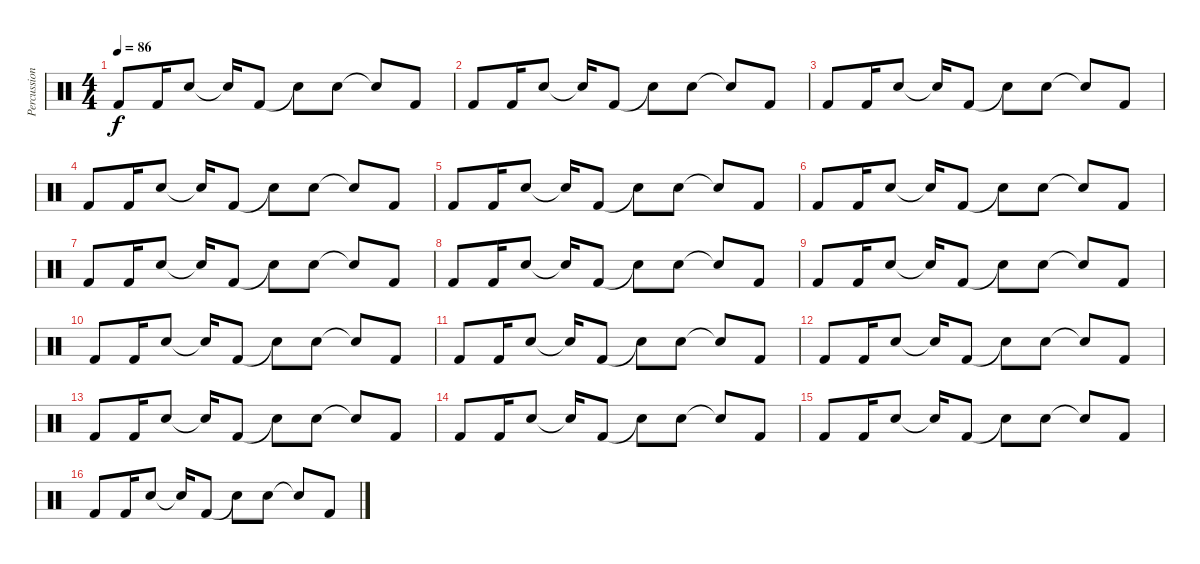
\track ("Percussion" "Percussion") {instrument percussion}
\staff {score}
\articulation defaults
\ts (4 4)
\tempo 86
\clef neutral
\ks c "Kick (hit) 2".8{dy f} "Kick (hit) 2".16 "Snare (hit) 2".8 "Snare (hit)"{t}.16 "Kick (hit) 2".8 "Snare (hit)"{t}.8 "Snare (hit) 2".8 "Snare (hit)"{t}.8 "Kick (hit) 2".8
|
"Kick (hit) 2".8 "Kick (hit) 2".16 "Snare (hit) 2".8 "Snare (hit)"{t}.16 "Kick (hit) 2".8 "Snare (hit)"{t}.8 "Snare (hit) 2".8 "Snare (hit)"{t}.8 "Kick (hit) 2".8 |
"Kick (hit) 2".8 "Kick (hit) 2".16 "Snare (hit) 2".8 "Snare (hit)"{t}.16 "Kick (hit) 2".8 "Snare (hit)"{t}.8 "Snare (hit) 2".8 "Snare (hit)"{t}.8 "Kick (hit) 2".8 |
"Kick (hit) 2".8 "Kick (hit) 2".16 "Snare (hit) 2".8 "Snare (hit)"{t}.16 "Kick (hit) 2".8 "Snare (hit)"{t}.8 "Snare (hit) 2".8 "Snare (hit)"{t}.8 "Kick (hit) 2".8 |
"Kick (hit) 2".8 "Kick (hit) 2".16 "Snare (hit) 2".8 "Snare (hit)"{t}.16 "Kick (hit) 2".8 "Snare (hit)"{t}.8 "Snare (hit) 2".8 "Snare (hit)"{t}.8 "Kick (hit) 2".8 |
"Kick (hit) 2".8 "Kick (hit) 2".16 "Snare (hit) 2".8 "Snare (hit)"{t}.16 "Kick (hit) 2".8 "Snare (hit)"{t}.8 "Snare (hit) 2".8 "Snare (hit)"{t}.8 "Kick (hit) 2".8 |
"Kick (hit) 2".8 "Kick (hit) 2".16 "Snare (hit) 2".8 "Snare (hit)"{t}.16 "Kick (hit) 2".8 "Snare (hit)"{t}.8 "Snare (hit) 2".8 "Snare (hit)"{t}.8 "Kick (hit) 2".8 |
"Kick (hit) 2".8 "Kick (hit) 2".16 "Snare (hit) 2".8 "Snare (hit)"{t}.16 "Kick (hit) 2".8 "Snare (hit)"{t}.8 "Snare (hit) 2".8 "Snare (hit)"{t}.8 "Kick (hit) 2".8 |
"Kick (hit) 2".8 "Kick (hit) 2".16 "Snare (hit) 2".8 "Snare (hit)"{t}.16 "Kick (hit) 2".8 "Snare (hit)"{t}.8 "Snare (hit) 2".8 "Snare (hit)"{t}.8 "Kick (hit) 2".8 |
"Kick (hit) 2".8 "Kick (hit) 2".16 "Snare (hit) 2".8 "Snare (hit)"{t}.16 "Kick (hit) 2".8 "Snare (hit)"{t}.8 "Snare (hit) 2".8 "Snare (hit)"{t}.8 "Kick (hit) 2".8 |
"Kick (hit) 2".8 "Kick (hit) 2".16 "Snare (hit) 2".8 "Snare (hit)"{t}.16 "Kick (hit) 2".8 "Snare (hit)"{t}.8 "Snare (hit) 2".8 "Snare (hit)"{t}.8 "Kick (hit) 2".8 |
"Kick (hit) 2".8 "Kick (hit) 2".16 "Snare (hit) 2".8 "Snare (hit)"{t}.16 "Kick (hit) 2".8 "Snare (hit)"{t}.8 "Snare (hit) 2".8 "Snare (hit)"{t}.8 "Kick (hit) 2".8 |
"Kick (hit) 2".8 "Kick (hit) 2".16 "Snare (hit) 2".8 "Snare (hit)"{t}.16 "Kick (hit) 2".8 "Snare (hit)"{t}.8 "Snare (hit) 2".8 "Snare (hit)"{t}.8 "Kick (hit) 2".8 |
"Kick (hit) 2".8 "Kick (hit) 2".16 "Snare (hit) 2".8 "Snare (hit)"{t}.16 "Kick (hit) 2".8 "Snare (hit)"{t}.8 "Snare (hit) 2".8 "Snare (hit)"{t}.8 "Kick (hit) 2".8 |
"Kick (hit) 2".8 "Kick (hit) 2".16 "Snare (hit) 2".8 "Snare (hit)"{t}.16 "Kick (hit) 2".8 "Snare (hit)"{t}.8 "Snare (hit) 2".8 "Snare (hit)"{t}.8 "Kick (hit) 2".8 |
"Kick (hit) 2".8 "Kick (hit) 2".16 "Snare (hit) 2".8 "Snare (hit)"{t}.16 "Kick (hit) 2".8 "Snare (hit)"{t}.8 "Snare (hit) 2".8 "Snare (hit)"{t}.8 "Kick (hit) 2".8
